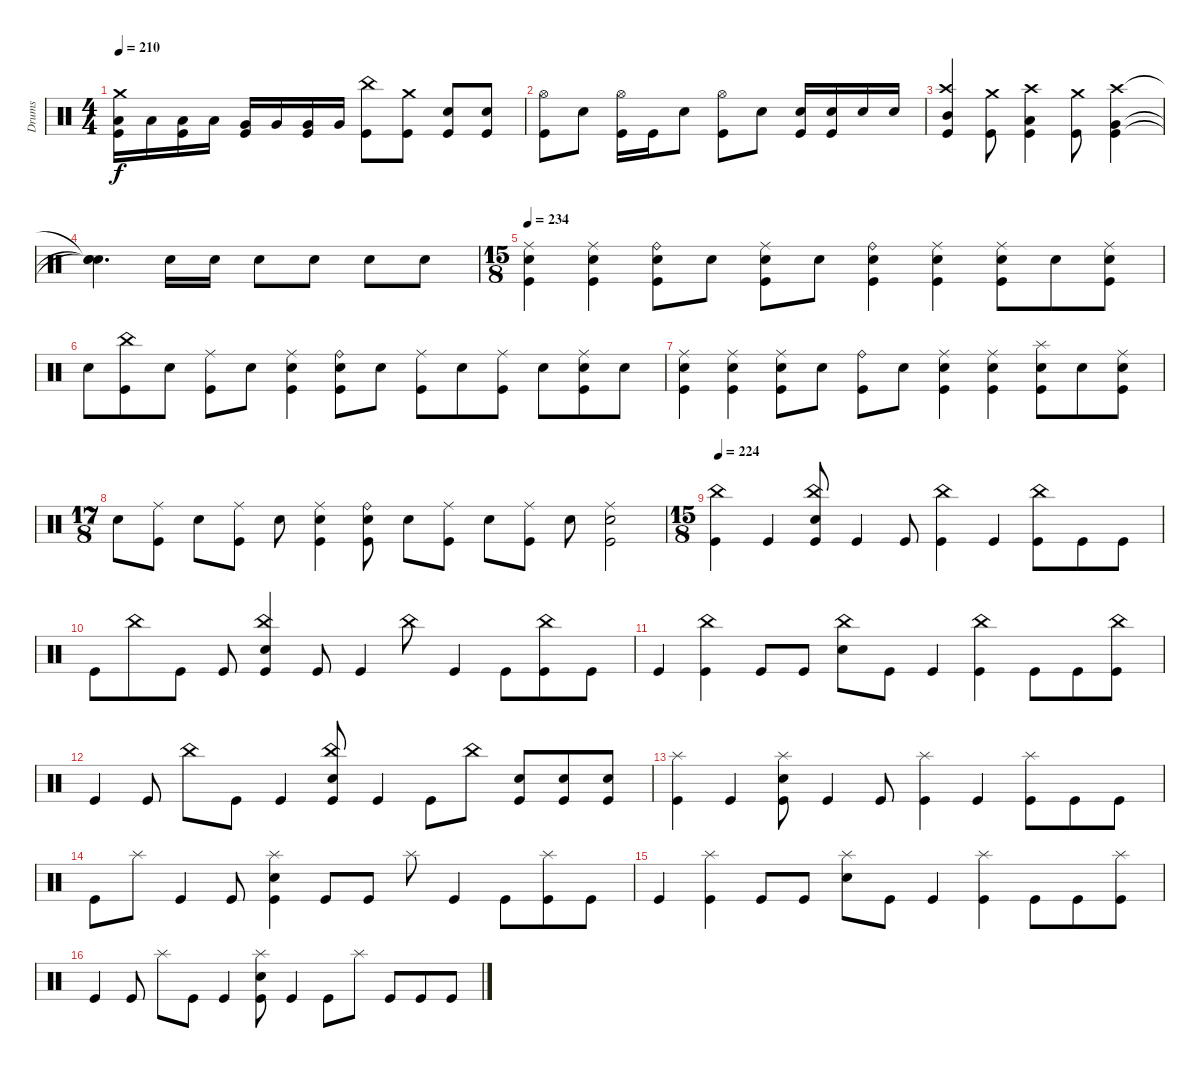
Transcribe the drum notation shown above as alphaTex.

\track ("Drums" "Drums") {instrument percussion}
\staff {score}
\articulation defaults
\ts (4 4)
\tempo 210
\clef neutral
\ks c
("Crash medium (hit)" "Low Tom (hit)" "Kick (hit)").16{dy f} "Low Tom (hit)".16 ("Low Tom (hit)" "Kick (hit)").16 "Low Tom (hit)".16 ("Very Low Tom (hit)" "Kick (hit)").16 "Very Low Tom (hit)".16 ("Very Low Tom (hit)" "Kick (hit)").16 "Very Low Tom (hit)".16 ("China (hit)" "Kick (hit)").8 ("Crash medium (hit)" "Kick (hit)").8 ("Snare (hit) 2" "Kick (hit)").8 ("Snare (hit) 2" "Kick (hit)").8 |
("Hi-Hat (open)" "Kick (hit)").8 "Snare (hit) 2".8 ("Hi-Hat (open)" "Kick (hit)").16 "Kick (hit)".16 "Snare (hit) 2".8 ("Hi-Hat (open)" "Kick (hit)").8 "Snare (hit) 2".8 ("Snare (hit) 2" "Kick (hit)").16 ("Snare (hit) 2" "Kick (hit)").16 "Snare (hit) 2".16 "Snare (hit) 2".16 |
("Crash high (hit)" "Mid Tom (hit)" "Kick (hit)").4 ("Crash medium (hit)" "Kick (hit)").8 ("Crash high (hit)" "Low Tom (hit)" "Kick (hit)").4 ("Crash medium (hit)" "Kick (hit)").8 ("Crash high (hit)" "Very Low Tom (hit)" "Kick (hit)").4 |
("Snare (hit)"{t} "Snare (hit)"{t} "Snare (hit)"{t}).4{d} "Snare (hit) 2".16 "Snare (hit) 2".16 "Snare (hit) 2".8 "Snare (hit) 2".8 "Snare (hit) 2".8 "Snare (hit) 2".8 |
\ts (15 8)
\tempo 234
("Ride (middle)" "Snare (hit) 2" "Kick (hit)").4 ("Ride (middle)" "Snare (hit) 2" "Kick (hit)").4 ("Ride (bell)" "Snare (hit) 2" "Kick (hit)").8 "Snare (hit) 2".8 ("Ride (middle)" "Snare (hit) 2" "Kick (hit)").8 "Snare (hit) 2".8 ("Ride (bell)" "Snare (hit) 2" "Kick (hit)").4 ("Ride (middle)" "Snare (hit) 2" "Kick (hit)").4 ("Ride (middle)" "Snare (hit) 2" "Kick (hit)").8 "Snare (hit) 2".8 ("Ride (middle)" "Snare (hit) 2" "Kick (hit)").8 |
"Snare (hit) 2".8 ("China (hit)" "Kick (hit)").8 "Snare (hit) 2".8 ("Ride (middle)" "Kick (hit)").8 "Snare (hit) 2".8 ("Ride (middle)" "Snare (hit) 2" "Kick (hit)").4 ("Ride (bell)" "Snare (hit) 2" "Kick (hit)").8 "Snare (hit) 2".8 ("Ride (middle)" "Kick (hit)").8 "Snare (hit) 2".8 ("Ride (middle)" "Kick (hit)").8 "Snare (hit) 2".8 ("Ride (middle)" "Snare (hit) 2" "Kick (hit)").8 "Snare (hit) 2".8 |
("Ride (middle)" "Snare (hit) 2" "Kick (hit)").4 ("Ride (middle)" "Snare (hit) 2" "Kick (hit)").4 ("Ride (middle)" "Snare (hit) 2" "Kick (hit)").8 "Snare (hit) 2".8 ("Ride (bell)" "Kick (hit)").8 "Snare (hit) 2".8 ("Ride (middle)" "Snare (hit) 2" "Kick (hit)").4 ("Ride (middle)" "Snare (hit) 2" "Kick (hit)").4 ("Splash (hit)" "Snare (hit) 2" "Kick (hit)").8 "Snare (hit) 2".8 ("Ride (middle)" "Snare (hit) 2" "Kick (hit)").8 |
\ts (17 8)
"Snare (hit) 2".8 ("Ride (middle)" "Kick (hit)").8 "Snare (hit) 2".8 ("Ride (middle)" "Kick (hit)").8 "Snare (hit) 2".8 ("Ride (middle)" "Snare (hit) 2" "Kick (hit)").4 ("Ride (bell)" "Snare (hit) 2" "Kick (hit)").8 "Snare (hit) 2".8 ("Ride (middle)" "Kick (hit)").8 "Snare (hit) 2".8 ("Ride (middle)" "Kick (hit)").8 "Snare (hit) 2".8 ("Ride (middle)" "Snare (hit) 2" "Kick (hit)").2 |
\ts (15 8)
\tempo 224
("China (hit)" "Kick (hit)").4 "Kick (hit)".4 ("China (hit)" "Snare (hit) 2" "Kick (hit)").8 "Kick (hit)".4 "Kick (hit)".8 ("China (hit)" "Kick (hit)").4 "Kick (hit)".4 ("China (hit)" "Kick (hit)").8 "Kick (hit)".8 "Kick (hit)".8 |
"Kick (hit)".8 "China (hit)".8 "Kick (hit)".8 "Kick (hit)".8 ("China (hit)" "Snare (hit) 2" "Kick (hit)").4 "Kick (hit)".8 "Kick (hit)".4 "China (hit)".8 "Kick (hit)".4 "Kick (hit)".8 ("China (hit)" "Kick (hit)").8 "Kick (hit)".8 |
"Kick (hit)".4 ("China (hit)" "Kick (hit)").4 "Kick (hit)".8 "Kick (hit)".8 ("China (hit)" "Snare (hit) 2").8 "Kick (hit)".8 "Kick (hit)".4 ("China (hit)" "Kick (hit)").4 "Kick (hit)".8 "Kick (hit)".8 ("China (hit)" "Kick (hit)").8 |
"Kick (hit)".4 "Kick (hit)".8 "China (hit)".8 "Kick (hit)".8 "Kick (hit)".4 ("China (hit)" "Snare (hit) 2" "Kick (hit)").8 "Kick (hit)".4 "Kick (hit)".8 "China (hit)".8 ("Snare (hit) 2" "Kick (hit)").8 ("Snare (hit) 2" "Kick (hit)").8 ("Snare (hit) 2" "Kick (hit)").8 |
("Splash (hit)" "Kick (hit)").4 "Kick (hit)".4 ("Splash (hit)" "Snare (hit) 2" "Kick (hit)").8 "Kick (hit)".4 "Kick (hit)".8 ("Splash (hit)" "Kick (hit)").4 "Kick (hit)".4 ("Splash (hit)" "Kick (hit)").8 "Kick (hit)".8 "Kick (hit)".8 |
"Kick (hit)".8 "Splash (hit)".8 "Kick (hit)".4 "Kick (hit)".8 ("Splash (hit)" "Snare (hit) 2" "Kick (hit)").4 "Kick (hit)".8 "Kick (hit)".8 "Splash (hit)".8 "Kick (hit)".4 "Kick (hit)".8 ("Splash (hit)" "Kick (hit)").8 "Kick (hit)".8 |
"Kick (hit)".4 ("Splash (hit)" "Kick (hit)").4 "Kick (hit)".8 "Kick (hit)".8 ("Splash (hit)" "Snare (hit) 2").8 "Kick (hit)".8 "Kick (hit)".4 ("Splash (hit)" "Kick (hit)").4 "Kick (hit)".8 "Kick (hit)".8 ("Splash (hit)" "Kick (hit)").8 |
"Kick (hit)".4 "Kick (hit)".8 "Splash (hit)".8 "Kick (hit)".8 "Kick (hit)".4 ("Splash (hit)" "Snare (hit) 2" "Kick (hit)").8 "Kick (hit)".4 "Kick (hit)".8 "Splash (hit)".8 "Kick (hit)".8 "Kick (hit)".8 "Kick (hit)".8
